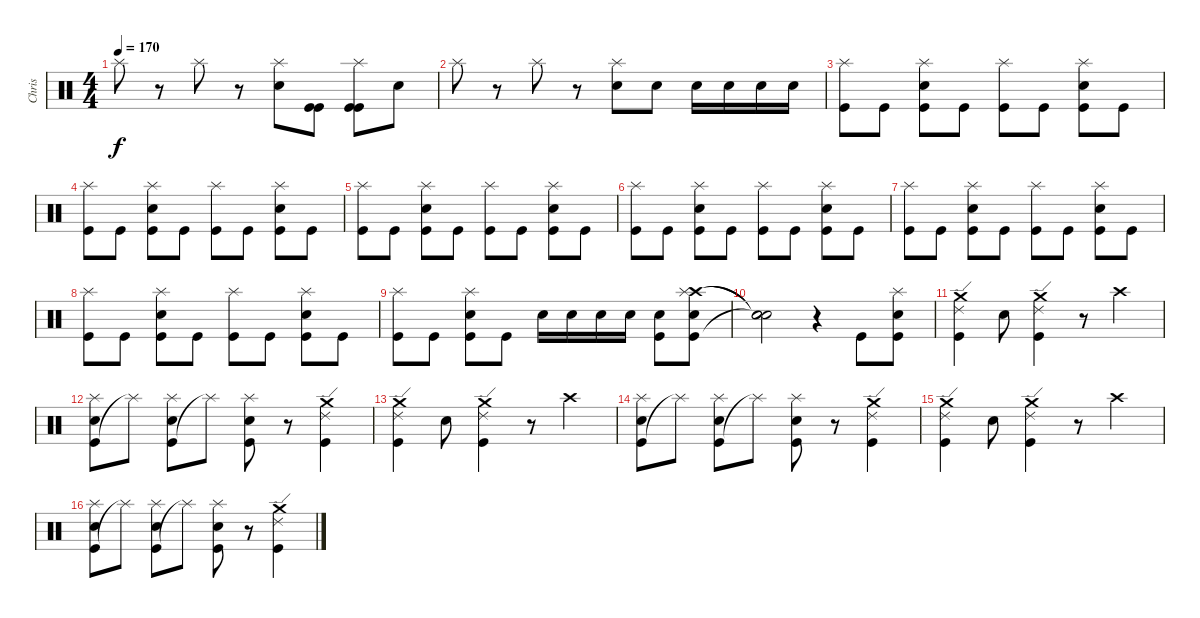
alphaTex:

\track ("Chris" "Chris") {instrument percussion}
\staff {score}
\articulation defaults
\ts (4 4)
\tempo 170
\clef neutral
\ks c "Splash (hit)".8{dy f}
r.8 "Splash (hit)".8 r.8 ("Splash (hit)" "Snare (hit) 2").8 ("Kick (hit)" "Kick (hit)").8 ("Kick (hit)" "Splash (hit)" "Kick (hit)").8 "Snare (hit) 2".8 |
"Splash (hit)".8 r.8 "Splash (hit)".8 r.8 ("Splash (hit)" "Snare (hit) 2").8 "Snare (hit) 2".8 "Electric Snare (hit)".16 "Electric Snare (hit)".16 "Electric Snare (hit)".16 "Electric Snare (hit)".16 |
("Kick (hit)" "Splash (hit)").8 "Kick (hit)".8 ("Kick (hit)" "Splash (hit)" "Snare (hit) 2").8 "Kick (hit)".8 ("Kick (hit)" "Splash (hit)").8 "Kick (hit)".8 ("Kick (hit)" "Splash (hit)" "Snare (hit) 2").8 "Kick (hit)".8 |
("Kick (hit)" "Splash (hit)").8 "Kick (hit)".8 ("Kick (hit)" "Splash (hit)" "Snare (hit) 2").8 "Kick (hit)".8 ("Kick (hit)" "Splash (hit)").8 "Kick (hit)".8 ("Kick (hit)" "Splash (hit)" "Snare (hit) 2").8 "Kick (hit)".8 |
("Kick (hit)" "Splash (hit)").8 "Kick (hit)".8 ("Kick (hit)" "Splash (hit)" "Snare (hit) 2").8 "Kick (hit)".8 ("Kick (hit)" "Splash (hit)").8 "Kick (hit)".8 ("Kick (hit)" "Splash (hit)" "Snare (hit) 2").8 "Kick (hit)".8 |
("Kick (hit)" "Splash (hit)").8 "Kick (hit)".8 ("Kick (hit)" "Splash (hit)" "Snare (hit) 2").8 "Kick (hit)".8 ("Kick (hit)" "Splash (hit)").8 "Kick (hit)".8 ("Kick (hit)" "Splash (hit)" "Snare (hit) 2").8 "Kick (hit)".8 |
("Kick (hit)" "Splash (hit)").8 "Kick (hit)".8 ("Kick (hit)" "Splash (hit)" "Snare (hit) 2").8 "Kick (hit)".8 ("Kick (hit)" "Splash (hit)").8 "Kick (hit)".8 ("Kick (hit)" "Splash (hit)" "Snare (hit) 2").8 "Kick (hit)".8 |
("Kick (hit)" "Splash (hit)").8 "Kick (hit)".8 ("Kick (hit)" "Splash (hit)" "Snare (hit) 2").8 "Kick (hit)".8 ("Kick (hit)" "Splash (hit)").8 "Kick (hit)".8 ("Kick (hit)" "Splash (hit)" "Snare (hit) 2").8 "Kick (hit)".8 |
("Kick (hit)" "Splash (hit)").8 "Kick (hit)".8 ("Kick (hit)" "Splash (hit)" "Snare (hit) 2").8 "Kick (hit)".8 "Electric Snare (hit)".16 "Electric Snare (hit)".16 "Electric Snare (hit)".16 "Electric Snare (hit)".16 ("Kick (hit)" "Snare (hit) 2").8 ("Kick (hit)" "Crash high (hit)" "Splash (hit)" "Snare (hit) 2").8 |
("Snare (hit)"{t} "Snare (hit)"{t} "Snare (hit)"{t}).2 r.4 "Kick (hit)".8 ("Kick (hit)" "Splash (hit)" "Snare (hit) 2").8 |
("Kick (hit)" "Ride (edge) 2" "Crash medium (hit)").4 "Snare (hit) 2".8 ("Kick (hit)" "Ride (edge) 2" "Crash medium (hit)").4 r.8 "Crash high (hit)".4 |
("Kick (hit)" "Splash (hit)" "Snare (hit) 2").8 "Splash (hit)"{t}.8 ("Kick (hit)" "Splash (hit)" "Snare (hit) 2").8 "Splash (hit)"{t}.8 ("Kick (hit)" "Splash (hit)" "Snare (hit) 2").8 r.8 ("Kick (hit)" "Ride (edge) 2" "Crash medium (hit)").4 |
("Kick (hit)" "Ride (edge) 2" "Crash medium (hit)").4 "Snare (hit) 2".8 ("Kick (hit)" "Ride (edge) 2" "Crash medium (hit)").4 r.8 "Crash high (hit)".4 |
("Kick (hit)" "Splash (hit)" "Snare (hit) 2").8 "Splash (hit)"{t}.8 ("Kick (hit)" "Splash (hit)" "Snare (hit) 2").8 "Splash (hit)"{t}.8 ("Kick (hit)" "Splash (hit)" "Snare (hit) 2").8 r.8 ("Kick (hit)" "Ride (edge) 2" "Crash medium (hit)").4 |
("Kick (hit)" "Ride (edge) 2" "Crash medium (hit)").4 "Snare (hit) 2".8 ("Kick (hit)" "Ride (edge) 2" "Crash medium (hit)").4 r.8 "Crash high (hit)".4 |
("Kick (hit)" "Splash (hit)" "Snare (hit) 2").8 "Splash (hit)"{t}.8 ("Kick (hit)" "Splash (hit)" "Snare (hit) 2").8 "Splash (hit)"{t}.8 ("Kick (hit)" "Splash (hit)" "Snare (hit) 2").8 r.8 ("Kick (hit)" "Ride (edge) 2" "Crash medium (hit)").4
